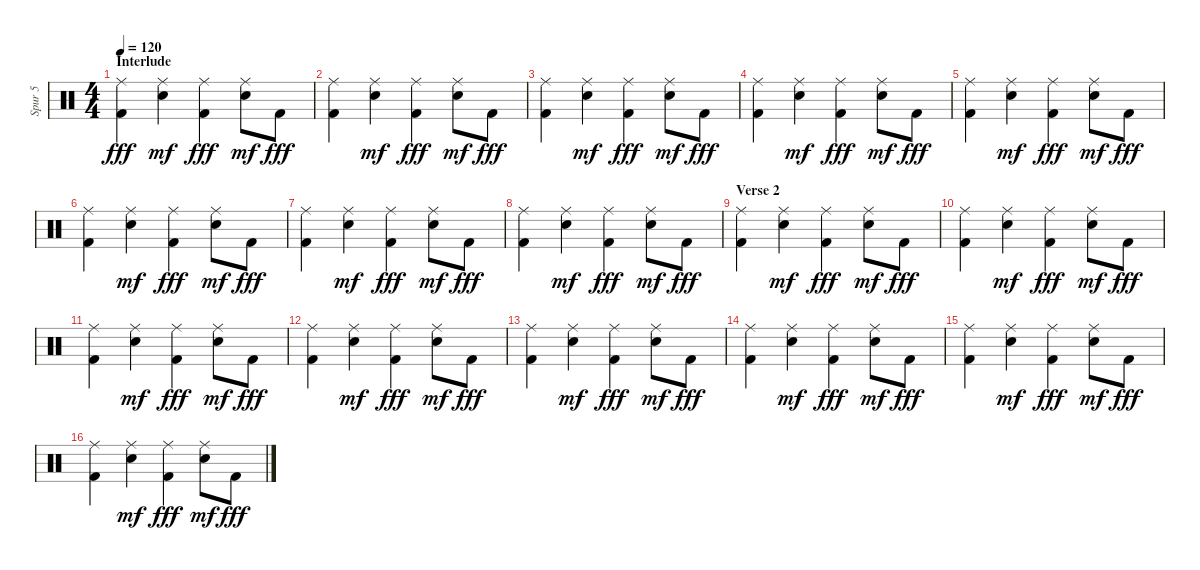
\track ("Spur 5" "Spur 5") {instrument percussion}
\staff {score}
\articulation defaults
\ts (4 4)
\section ("" "Interlude")
\tempo 120
\clef neutral
\ks c
("Ride (middle)" "Kick (hit) 2").4{dy fff} ("Ride (middle)" "Snare (hit) 2").4{dy mf} ("Ride (middle)" "Kick (hit) 2").4{dy fff} ("Ride (middle)" "Snare (hit) 2").8{dy mf} "Kick (hit) 2".8{dy fff} |
("Ride (middle)" "Kick (hit) 2").4 ("Ride (middle)" "Snare (hit) 2").4{dy mf} ("Ride (middle)" "Kick (hit) 2").4{dy fff} ("Ride (middle)" "Snare (hit) 2").8{dy mf} "Kick (hit) 2".8{dy fff} |
("Ride (middle)" "Kick (hit) 2").4 ("Ride (middle)" "Snare (hit) 2").4{dy mf} ("Ride (middle)" "Kick (hit) 2").4{dy fff} ("Ride (middle)" "Snare (hit) 2").8{dy mf} "Kick (hit) 2".8{dy fff} |
("Ride (middle)" "Kick (hit) 2").4 ("Ride (middle)" "Snare (hit) 2").4{dy mf} ("Ride (middle)" "Kick (hit) 2").4{dy fff} ("Ride (middle)" "Snare (hit) 2").8{dy mf} "Kick (hit) 2".8{dy fff} |
("Ride (middle)" "Kick (hit) 2").4 ("Ride (middle)" "Snare (hit) 2").4{dy mf} ("Ride (middle)" "Kick (hit) 2").4{dy fff} ("Ride (middle)" "Snare (hit) 2").8{dy mf} "Kick (hit) 2".8{dy fff} |
("Ride (middle)" "Kick (hit) 2").4 ("Ride (middle)" "Snare (hit) 2").4{dy mf} ("Ride (middle)" "Kick (hit) 2").4{dy fff} ("Ride (middle)" "Snare (hit) 2").8{dy mf} "Kick (hit) 2".8{dy fff} |
("Ride (middle)" "Kick (hit) 2").4 ("Ride (middle)" "Snare (hit) 2").4{dy mf} ("Ride (middle)" "Kick (hit) 2").4{dy fff} ("Ride (middle)" "Snare (hit) 2").8{dy mf} "Kick (hit) 2".8{dy fff} |
("Ride (middle)" "Kick (hit) 2").4 ("Ride (middle)" "Snare (hit) 2").4{dy mf} ("Ride (middle)" "Kick (hit) 2").4{dy fff} ("Ride (middle)" "Snare (hit) 2").8{dy mf} "Kick (hit) 2".8{dy fff} |
\section ("" "Verse 2")
("Ride (middle)" "Kick (hit) 2").4 ("Ride (middle)" "Snare (hit) 2").4{dy mf} ("Ride (middle)" "Kick (hit) 2").4{dy fff} ("Ride (middle)" "Snare (hit) 2").8{dy mf} "Kick (hit) 2".8{dy fff} |
("Ride (middle)" "Kick (hit) 2").4 ("Ride (middle)" "Snare (hit) 2").4{dy mf} ("Ride (middle)" "Kick (hit) 2").4{dy fff} ("Ride (middle)" "Snare (hit) 2").8{dy mf} "Kick (hit) 2".8{dy fff} |
("Ride (middle)" "Kick (hit) 2").4 ("Ride (middle)" "Snare (hit) 2").4{dy mf} ("Ride (middle)" "Kick (hit) 2").4{dy fff} ("Ride (middle)" "Snare (hit) 2").8{dy mf} "Kick (hit) 2".8{dy fff} |
("Ride (middle)" "Kick (hit) 2").4 ("Ride (middle)" "Snare (hit) 2").4{dy mf} ("Ride (middle)" "Kick (hit) 2").4{dy fff} ("Ride (middle)" "Snare (hit) 2").8{dy mf} "Kick (hit) 2".8{dy fff} |
("Ride (middle)" "Kick (hit) 2").4 ("Ride (middle)" "Snare (hit) 2").4{dy mf} ("Ride (middle)" "Kick (hit) 2").4{dy fff} ("Ride (middle)" "Snare (hit) 2").8{dy mf} "Kick (hit) 2".8{dy fff} |
("Ride (middle)" "Kick (hit) 2").4 ("Ride (middle)" "Snare (hit) 2").4{dy mf} ("Ride (middle)" "Kick (hit) 2").4{dy fff} ("Ride (middle)" "Snare (hit) 2").8{dy mf} "Kick (hit) 2".8{dy fff} |
("Ride (middle)" "Kick (hit) 2").4 ("Ride (middle)" "Snare (hit) 2").4{dy mf} ("Ride (middle)" "Kick (hit) 2").4{dy fff} ("Ride (middle)" "Snare (hit) 2").8{dy mf} "Kick (hit) 2".8{dy fff} |
("Ride (middle)" "Kick (hit) 2").4 ("Ride (middle)" "Snare (hit) 2").4{dy mf} ("Ride (middle)" "Kick (hit) 2").4{dy fff} ("Ride (middle)" "Snare (hit) 2").8{dy mf} "Kick (hit) 2".8{dy fff}
